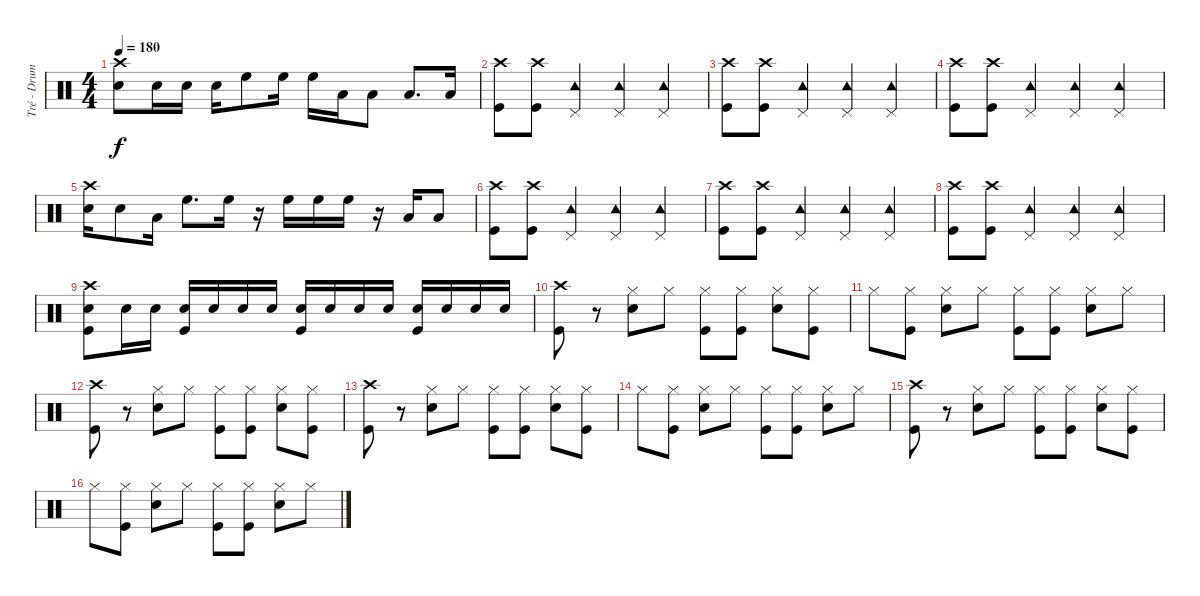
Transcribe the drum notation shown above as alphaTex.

\track ("Tré - Drums" "Tré - Drum") {instrument percussion}
\staff {score}
\articulation defaults
\ts (4 4)
\tempo 180
\clef neutral
\ks c
("Crash high (hit)" "Electric Snare (hit)").8{dy f} "Electric Snare (hit)".16 "Electric Snare (hit)".16 "Electric Snare (hit)".16 "High Floor Tom (hit)".8 "High Floor Tom (hit)".16 "High Floor Tom (hit)".16 "Low Floor Tom (hit)".16 "Low Floor Tom (hit)".8 "Low Floor Tom (hit)".8{d} "Low Floor Tom (hit)".16 |
("Crash high (hit)" "Kick (hit)").8 ("Crash high (hit)" "Kick (hit)").8 ("Tambourine (hit)" "Pedal Hi-Hat (hit)").4 ("Tambourine (hit)" "Pedal Hi-Hat (hit)").4 ("Tambourine (hit)" "Pedal Hi-Hat (hit)").4 |
("Crash high (hit)" "Kick (hit)").8 ("Crash high (hit)" "Kick (hit)").8 ("Tambourine (hit)" "Pedal Hi-Hat (hit)").4 ("Tambourine (hit)" "Pedal Hi-Hat (hit)").4 ("Tambourine (hit)" "Pedal Hi-Hat (hit)").4 |
("Crash high (hit)" "Kick (hit)").8 ("Crash high (hit)" "Kick (hit)").8 ("Tambourine (hit)" "Pedal Hi-Hat (hit)").4 ("Tambourine (hit)" "Pedal Hi-Hat (hit)").4 ("Tambourine (hit)" "Pedal Hi-Hat (hit)").4 |
("Electric Snare (hit)" "Crash high (hit)").16 "Electric Snare (hit)".8 "Low Floor Tom (hit)".16 "High Floor Tom (hit)".8{d} "High Floor Tom (hit)".16 r.16 "High Floor Tom (hit)".16 "High Floor Tom (hit)".16 "High Floor Tom (hit)".16 r.16 "Low Floor Tom (hit)".16 "Low Floor Tom (hit)".8 |
("Crash high (hit)" "Kick (hit)").8 ("Crash high (hit)" "Kick (hit)").8 ("Tambourine (hit)" "Pedal Hi-Hat (hit)").4 ("Tambourine (hit)" "Pedal Hi-Hat (hit)").4 ("Tambourine (hit)" "Pedal Hi-Hat (hit)").4 |
("Crash high (hit)" "Kick (hit)").8 ("Crash high (hit)" "Kick (hit)").8 ("Tambourine (hit)" "Pedal Hi-Hat (hit)").4 ("Tambourine (hit)" "Pedal Hi-Hat (hit)").4 ("Tambourine (hit)" "Pedal Hi-Hat (hit)").4 |
("Crash high (hit)" "Kick (hit)").8 ("Crash high (hit)" "Kick (hit)").8 ("Tambourine (hit)" "Pedal Hi-Hat (hit)").4 ("Tambourine (hit)" "Pedal Hi-Hat (hit)").4 ("Tambourine (hit)" "Pedal Hi-Hat (hit)").4 |
("Crash high (hit)" "Electric Snare (hit)" "Kick (hit)").8 "Electric Snare (hit)".16 "Electric Snare (hit)".16 ("Electric Snare (hit)" "Kick (hit)").16 "Electric Snare (hit)".16 "Electric Snare (hit)".16 "Electric Snare (hit)".16 ("Electric Snare (hit)" "Kick (hit)").16 "Electric Snare (hit)".16 "Electric Snare (hit)".16 "Electric Snare (hit)".16 ("Electric Snare (hit)" "Kick (hit)").16 "Electric Snare (hit)".16 "Electric Snare (hit)".16 "Electric Snare (hit)".16 |
("Crash high (hit)" "Kick (hit)").8 r.8 ("Hi-Hat (closed)" "Electric Snare (hit)").8 "Hi-Hat (closed)".8 ("Hi-Hat (closed)" "Kick (hit)").8 ("Hi-Hat (closed)" "Kick (hit)").8 ("Hi-Hat (closed)" "Electric Snare (hit)").8 ("Hi-Hat (closed)" "Kick (hit)").8 |
"Hi-Hat (closed)".8 ("Hi-Hat (closed)" "Kick (hit)").8 ("Hi-Hat (closed)" "Electric Snare (hit)").8 "Hi-Hat (closed)".8 ("Hi-Hat (closed)" "Kick (hit)").8 ("Hi-Hat (closed)" "Kick (hit)").8 ("Hi-Hat (closed)" "Electric Snare (hit)").8 "Hi-Hat (closed)".8 |
("Crash high (hit)" "Kick (hit)").8 r.8 ("Hi-Hat (closed)" "Electric Snare (hit)").8 "Hi-Hat (closed)".8 ("Hi-Hat (closed)" "Kick (hit)").8 ("Hi-Hat (closed)" "Kick (hit)").8 ("Hi-Hat (closed)" "Electric Snare (hit)").8 ("Hi-Hat (closed)" "Kick (hit)").8 |
("Crash high (hit)" "Kick (hit)").8 r.8 ("Hi-Hat (closed)" "Electric Snare (hit)").8 "Hi-Hat (closed)".8 ("Hi-Hat (closed)" "Kick (hit)").8 ("Hi-Hat (closed)" "Kick (hit)").8 ("Hi-Hat (closed)" "Electric Snare (hit)").8 ("Hi-Hat (closed)" "Kick (hit)").8 |
"Hi-Hat (closed)".8 ("Hi-Hat (closed)" "Kick (hit)").8 ("Hi-Hat (closed)" "Electric Snare (hit)").8 "Hi-Hat (closed)".8 ("Hi-Hat (closed)" "Kick (hit)").8 ("Hi-Hat (closed)" "Kick (hit)").8 ("Hi-Hat (closed)" "Electric Snare (hit)").8 "Hi-Hat (closed)".8 |
("Crash high (hit)" "Kick (hit)").8 r.8 ("Hi-Hat (closed)" "Electric Snare (hit)").8 "Hi-Hat (closed)".8 ("Hi-Hat (closed)" "Kick (hit)").8 ("Hi-Hat (closed)" "Kick (hit)").8 ("Hi-Hat (closed)" "Electric Snare (hit)").8 ("Hi-Hat (closed)" "Kick (hit)").8 |
"Hi-Hat (closed)".8 ("Hi-Hat (closed)" "Kick (hit)").8 ("Hi-Hat (closed)" "Electric Snare (hit)").8 "Hi-Hat (closed)".8 ("Hi-Hat (closed)" "Kick (hit)").8 ("Hi-Hat (closed)" "Kick (hit)").8 ("Hi-Hat (closed)" "Electric Snare (hit)").8 "Hi-Hat (closed)".8
